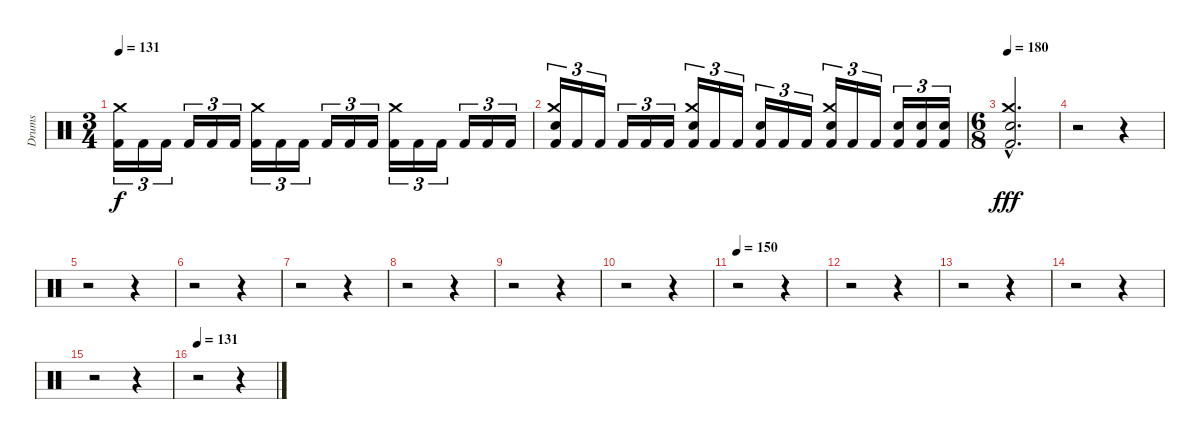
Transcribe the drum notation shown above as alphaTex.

\track ("Drums" "Drums") {instrument percussion}
\staff {score}
\articulation defaults
\ts (3 4)
\tempo 131
\clef neutral
\ks c
("Kick (hit) 2" "Crash medium (hit)").16{tu (3 2) dy f} "Kick (hit) 2".16{tu (3 2)} "Kick (hit) 2".16{tu (3 2)} "Kick (hit) 2".16{tu (3 2)} "Kick (hit) 2".16{tu (3 2)} "Kick (hit) 2".16{tu (3 2)} ("Kick (hit) 2" "Crash medium (hit)").16{tu (3 2)} "Kick (hit) 2".16{tu (3 2)} "Kick (hit) 2".16{tu (3 2)} "Kick (hit) 2".16{tu (3 2)} "Kick (hit) 2".16{tu (3 2)} "Kick (hit) 2".16{tu (3 2)} ("Kick (hit) 2" "Crash medium (hit)").16{tu (3 2)} "Kick (hit) 2".16{tu (3 2)} "Kick (hit) 2".16{tu (3 2)} "Kick (hit) 2".16{tu (3 2)} "Kick (hit) 2".16{tu (3 2)} "Kick (hit) 2".16{tu (3 2)} |
("Kick (hit) 2" "Electric Snare (hit)" "Crash medium (hit)").16{tu (3 2)} "Kick (hit) 2".16{tu (3 2)} "Kick (hit) 2".16{tu (3 2)} "Kick (hit) 2".16{tu (3 2)} "Kick (hit) 2".16{tu (3 2)} "Kick (hit) 2".16{tu (3 2)} ("Kick (hit) 2" "Electric Snare (hit)" "Crash medium (hit)").16{tu (3 2)} "Kick (hit) 2".16{tu (3 2)} "Kick (hit) 2".16{tu (3 2)} ("Kick (hit) 2" "Electric Snare (hit)").16{tu (3 2)} "Kick (hit) 2".16{tu (3 2)} "Kick (hit) 2".16{tu (3 2)} ("Kick (hit) 2" "Electric Snare (hit)" "Crash medium (hit)").16{tu (3 2)} "Kick (hit) 2".16{tu (3 2)} "Kick (hit) 2".16{tu (3 2)} ("Kick (hit) 2" "Electric Snare (hit)").16{tu (3 2)} ("Kick (hit) 2" "Electric Snare (hit)").16{tu (3 2)} ("Kick (hit) 2" "Electric Snare (hit)").16{tu (3 2)} |
\ts (6 8)
\tempo 180
("Kick (hit) 2"{hac} "Electric Snare (hit)"{hac} "Crash medium (hit)"{hac}).2{d dy fff} |
r.2 r.4 |
r.2 r.4 |
r.2 r.4 |
r.2 r.4 |
r.2 r.4 |
r.2 r.4 |
r.2 r.4 |
\tempo 150
r.2 r.4 |
r.2 r.4 |
r.2 r.4 |
r.2 r.4 |
r.2 r.4 |
\tempo 131
r.2 r.4
